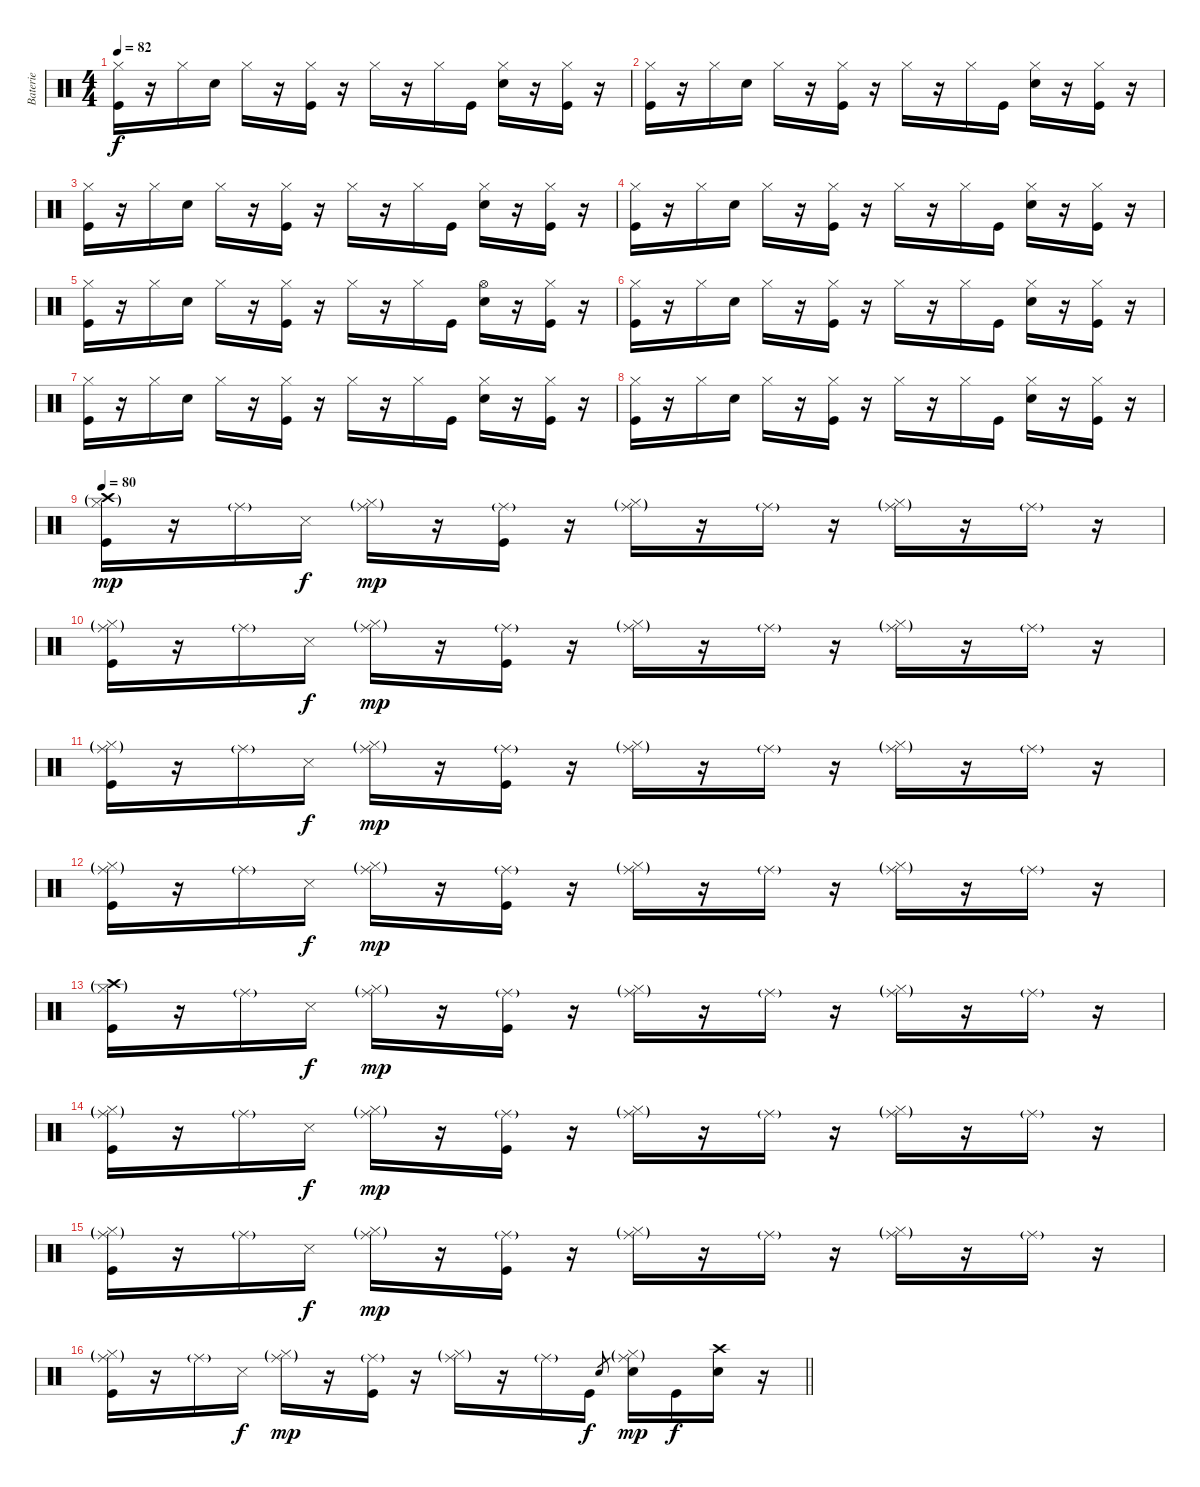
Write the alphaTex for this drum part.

\track ("Baterie" "Baterie") {instrument percussion}
\staff {score}
\articulation defaults
\ts (4 4)
\tempo 82
\clef neutral
\ks c
("Hi-Hat (closed)" "Kick (hit)").16{dy f} r.16 "Hi-Hat (closed)".16 "Electric Snare (hit)".16 "Hi-Hat (closed)".16 r.16 ("Hi-Hat (closed)" "Kick (hit)").16 r.16 "Hi-Hat (closed)".16 r.16 "Hi-Hat (closed)".16 "Kick (hit)".16 ("Hi-Hat (closed)" "Electric Snare (hit)").16 r.16 ("Hi-Hat (closed)" "Kick (hit)").16 r.16 |
("Hi-Hat (closed)" "Kick (hit)").16 r.16 "Hi-Hat (closed)".16 "Electric Snare (hit)".16 "Hi-Hat (closed)".16 r.16 ("Hi-Hat (closed)" "Kick (hit)").16 r.16 "Hi-Hat (closed)".16 r.16 "Hi-Hat (closed)".16 "Kick (hit)".16 ("Hi-Hat (closed)" "Electric Snare (hit)").16 r.16 ("Hi-Hat (closed)" "Kick (hit)").16 r.16 |
("Hi-Hat (closed)" "Kick (hit)").16 r.16 "Hi-Hat (closed)".16 "Electric Snare (hit)".16 "Hi-Hat (closed)".16 r.16 ("Hi-Hat (closed)" "Kick (hit)").16 r.16 "Hi-Hat (closed)".16 r.16 "Hi-Hat (closed)".16 "Kick (hit)".16 ("Hi-Hat (closed)" "Electric Snare (hit)").16 r.16 ("Hi-Hat (closed)" "Kick (hit)").16 r.16 |
("Hi-Hat (closed)" "Kick (hit)").16 r.16 "Hi-Hat (closed)".16 "Electric Snare (hit)".16 "Hi-Hat (closed)".16 r.16 ("Hi-Hat (closed)" "Kick (hit)").16 r.16 "Hi-Hat (closed)".16 r.16 "Hi-Hat (closed)".16 "Kick (hit)".16 ("Hi-Hat (closed)" "Electric Snare (hit)").16 r.16 ("Hi-Hat (closed)" "Kick (hit)").16 r.16 |
("Hi-Hat (closed)" "Kick (hit)").16 r.16 "Hi-Hat (closed)".16 "Electric Snare (hit)".16 "Hi-Hat (closed)".16 r.16 ("Hi-Hat (closed)" "Kick (hit)").16 r.16 "Hi-Hat (closed)".16 r.16 "Hi-Hat (closed)".16 "Kick (hit)".16 ("Hi-Hat (open)" "Electric Snare (hit)").16 r.16 ("Hi-Hat (closed)" "Kick (hit)").16 r.16 |
("Hi-Hat (closed)" "Kick (hit)").16 r.16 "Hi-Hat (closed)".16 "Electric Snare (hit)".16 "Hi-Hat (closed)".16 r.16 ("Hi-Hat (closed)" "Kick (hit)").16 r.16 "Hi-Hat (closed)".16 r.16 "Hi-Hat (closed)".16 "Kick (hit)".16 ("Hi-Hat (closed)" "Electric Snare (hit)").16 r.16 ("Hi-Hat (closed)" "Kick (hit)").16 r.16 |
("Hi-Hat (closed)" "Kick (hit)").16 r.16 "Hi-Hat (closed)".16 "Electric Snare (hit)".16 "Hi-Hat (closed)".16 r.16 ("Hi-Hat (closed)" "Kick (hit)").16 r.16 "Hi-Hat (closed)".16 r.16 "Hi-Hat (closed)".16 "Kick (hit)".16 ("Hi-Hat (closed)" "Electric Snare (hit)").16 r.16 ("Hi-Hat (closed)" "Kick (hit)").16 r.16 |
("Hi-Hat (closed)" "Kick (hit)").16 r.16 "Hi-Hat (closed)".16 "Electric Snare (hit)".16 "Hi-Hat (closed)".16 r.16 ("Hi-Hat (closed)" "Kick (hit)").16 r.16 "Hi-Hat (closed)".16 r.16 "Hi-Hat (closed)".16 "Kick (hit)".16 ("Hi-Hat (closed)" "Electric Snare (hit)").16 r.16 ("Hi-Hat (closed)" "Kick (hit)").16 r.16 |
\tempo 80
("Crash high (hit)"{g} "Hi-Hat (closed)"{g} "Kick (hit)").16{dy mp} r.16 "Ride (middle)"{g}.16 "Metronome (hit)".16{dy f} ("Ride (middle)"{g} "Hi-Hat (closed)"{g}).16{dy mp} r.16 ("Ride (middle)"{g} "Kick (hit)").16 r.16 ("Ride (middle)"{g} "Hi-Hat (closed)"{g}).16 r.16 "Ride (middle)"{g}.16 r.16 ("Ride (middle)"{g} "Hi-Hat (closed)"{g}).16 r.16 "Ride (middle)"{g}.16 r.16 |
("Ride (middle)"{g} "Hi-Hat (closed)"{g} "Kick (hit)").16 r.16 "Ride (middle)"{g}.16 "Metronome (hit)".16{dy f} ("Ride (middle)"{g} "Hi-Hat (closed)"{g}).16{dy mp} r.16 ("Ride (middle)"{g} "Kick (hit)").16 r.16 ("Ride (middle)"{g} "Hi-Hat (closed)"{g}).16 r.16 "Ride (middle)"{g}.16 r.16 ("Ride (middle)"{g} "Hi-Hat (closed)"{g}).16 r.16 "Ride (middle)"{g}.16 r.16 |
("Ride (middle)"{g} "Hi-Hat (closed)"{g} "Kick (hit)").16 r.16 "Ride (middle)"{g}.16 "Metronome (hit)".16{dy f} ("Ride (middle)"{g} "Hi-Hat (closed)"{g}).16{dy mp} r.16 ("Ride (middle)"{g} "Kick (hit)").16 r.16 ("Ride (middle)"{g} "Hi-Hat (closed)"{g}).16 r.16 "Ride (middle)"{g}.16 r.16 ("Ride (middle)"{g} "Hi-Hat (closed)"{g}).16 r.16 "Ride (middle)"{g}.16 r.16 |
("Ride (middle)"{g} "Hi-Hat (closed)"{g} "Kick (hit)").16 r.16 "Ride (middle)"{g}.16 "Metronome (hit)".16{dy f} ("Ride (middle)"{g} "Hi-Hat (closed)"{g}).16{dy mp} r.16 ("Ride (middle)"{g} "Kick (hit)").16 r.16 ("Ride (middle)"{g} "Hi-Hat (closed)"{g}).16 r.16 "Ride (middle)"{g}.16 r.16 ("Ride (middle)"{g} "Hi-Hat (closed)"{g}).16 r.16 "Ride (middle)"{g}.16 r.16 |
("Crash high (hit)"{g} "Hi-Hat (closed)"{g} "Kick (hit)").16 r.16 "Ride (middle)"{g}.16 "Metronome (hit)".16{dy f} ("Ride (middle)"{g} "Hi-Hat (closed)"{g}).16{dy mp} r.16 ("Ride (middle)"{g} "Kick (hit)").16 r.16 ("Ride (middle)"{g} "Hi-Hat (closed)"{g}).16 r.16 "Ride (middle)"{g}.16 r.16 ("Ride (middle)"{g} "Hi-Hat (closed)"{g}).16 r.16 "Ride (middle)"{g}.16 r.16 |
("Ride (middle)"{g} "Hi-Hat (closed)"{g} "Kick (hit)").16 r.16 "Ride (middle)"{g}.16 "Metronome (hit)".16{dy f} ("Ride (middle)"{g} "Hi-Hat (closed)"{g}).16{dy mp} r.16 ("Ride (middle)"{g} "Kick (hit)").16 r.16 ("Ride (middle)"{g} "Hi-Hat (closed)"{g}).16 r.16 "Ride (middle)"{g}.16 r.16 ("Ride (middle)"{g} "Hi-Hat (closed)"{g}).16 r.16 "Ride (middle)"{g}.16 r.16 |
("Ride (middle)"{g} "Hi-Hat (closed)"{g} "Kick (hit)").16 r.16 "Ride (middle)"{g}.16 "Metronome (hit)".16{dy f} ("Ride (middle)"{g} "Hi-Hat (closed)"{g}).16{dy mp} r.16 ("Ride (middle)"{g} "Kick (hit)").16 r.16 ("Ride (middle)"{g} "Hi-Hat (closed)"{g}).16 r.16 "Ride (middle)"{g}.16 r.16 ("Ride (middle)"{g} "Hi-Hat (closed)"{g}).16 r.16 "Ride (middle)"{g}.16 r.16 |
\barLineRight lightlight
("Ride (middle)"{g} "Hi-Hat (closed)"{g} "Kick (hit)").16 r.16 "Ride (middle)"{g}.16 "Metronome (hit)".16{dy f} ("Ride (middle)"{g} "Hi-Hat (closed)"{g}).16{dy mp} r.16 ("Ride (middle)"{g} "Kick (hit)").16 r.16 ("Ride (middle)"{g} "Hi-Hat (closed)"{g}).16 r.16 "Ride (middle)"{g}.16 "Kick (hit)".16{dy f} "Electric Snare (hit)".8{gr} ("Ride (middle)"{g} "Hi-Hat (closed)"{g} "Electric Snare (hit)").16{dy mp} "Kick (hit)".16{dy f} ("Crash high (hit)" "Electric Snare (hit)").16 r.16
